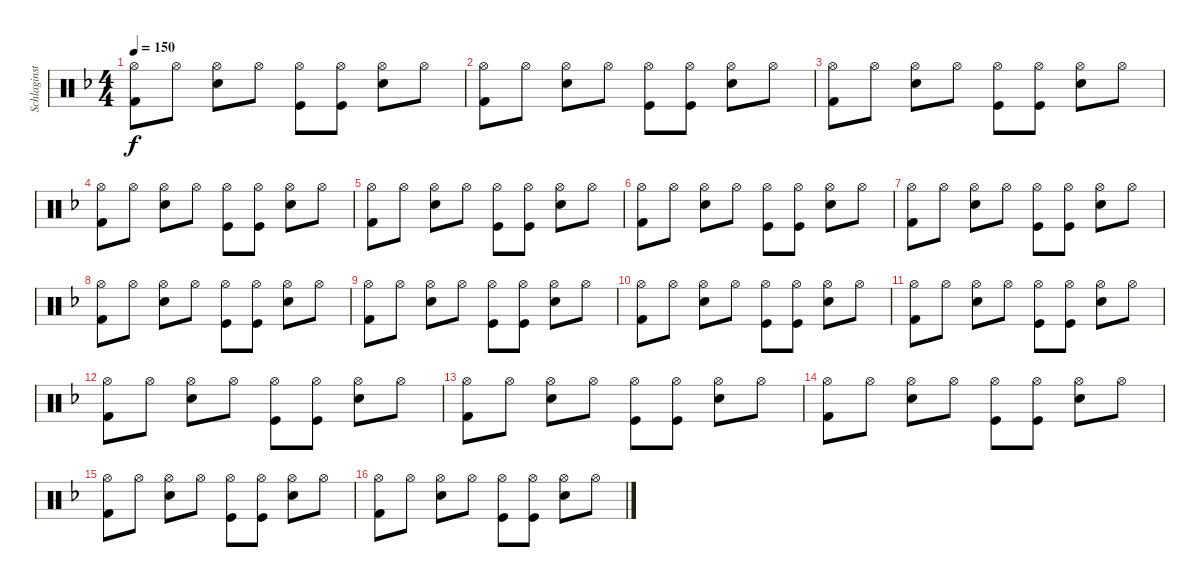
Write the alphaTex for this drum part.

\track ("Schlaginstrumente - Auswahl" "Schlaginst") {instrument percussion}
\staff {score}
\articulation defaults
\ts (4 4)
\tempo 150
\clef neutral
\ks f
("Hi-Hat (open)" "Kick (hit) 2").8{dy f} "Hi-Hat (open)".8 ("Hi-Hat (open)" "Snare (hit) 2").8 "Hi-Hat (open)".8 ("Hi-Hat (open)" "Kick (hit)").8 ("Kick (hit)" "Hi-Hat (open)").8 ("Hi-Hat (open)" "Snare (hit) 2").8 "Hi-Hat (open)".8 |
("Hi-Hat (open)" "Kick (hit) 2").8 "Hi-Hat (open)".8 ("Hi-Hat (open)" "Snare (hit) 2").8 "Hi-Hat (open)".8 ("Hi-Hat (open)" "Kick (hit)").8 ("Kick (hit)" "Hi-Hat (open)").8 ("Hi-Hat (open)" "Snare (hit) 2").8 "Hi-Hat (open)".8 |
("Hi-Hat (open)" "Kick (hit) 2").8 "Hi-Hat (open)".8 ("Hi-Hat (open)" "Snare (hit) 2").8 "Hi-Hat (open)".8 ("Hi-Hat (open)" "Kick (hit)").8 ("Kick (hit)" "Hi-Hat (open)").8 ("Hi-Hat (open)" "Snare (hit) 2").8 "Hi-Hat (open)".8 |
("Hi-Hat (open)" "Kick (hit) 2").8 "Hi-Hat (open)".8 ("Hi-Hat (open)" "Snare (hit) 2").8 "Hi-Hat (open)".8 ("Hi-Hat (open)" "Kick (hit)").8 ("Kick (hit)" "Hi-Hat (open)").8 ("Hi-Hat (open)" "Snare (hit) 2").8 "Hi-Hat (open)".8 |
("Hi-Hat (open)" "Kick (hit) 2").8 "Hi-Hat (open)".8 ("Hi-Hat (open)" "Snare (hit) 2").8 "Hi-Hat (open)".8 ("Hi-Hat (open)" "Kick (hit)").8 ("Kick (hit)" "Hi-Hat (open)").8 ("Hi-Hat (open)" "Snare (hit) 2").8 "Hi-Hat (open)".8 |
("Hi-Hat (open)" "Kick (hit) 2").8 "Hi-Hat (open)".8 ("Hi-Hat (open)" "Snare (hit) 2").8 "Hi-Hat (open)".8 ("Hi-Hat (open)" "Kick (hit)").8 ("Kick (hit)" "Hi-Hat (open)").8 ("Hi-Hat (open)" "Snare (hit) 2").8 "Hi-Hat (open)".8 |
("Hi-Hat (open)" "Kick (hit) 2").8 "Hi-Hat (open)".8 ("Hi-Hat (open)" "Snare (hit) 2").8 "Hi-Hat (open)".8 ("Hi-Hat (open)" "Kick (hit)").8 ("Kick (hit)" "Hi-Hat (open)").8 ("Hi-Hat (open)" "Snare (hit) 2").8 "Hi-Hat (open)".8 |
("Hi-Hat (open)" "Kick (hit) 2").8 "Hi-Hat (open)".8 ("Hi-Hat (open)" "Snare (hit) 2").8 "Hi-Hat (open)".8 ("Hi-Hat (open)" "Kick (hit)").8 ("Kick (hit)" "Hi-Hat (open)").8 ("Hi-Hat (open)" "Snare (hit) 2").8 "Hi-Hat (open)".8 |
("Hi-Hat (open)" "Kick (hit) 2").8 "Hi-Hat (open)".8 ("Hi-Hat (open)" "Snare (hit) 2").8 "Hi-Hat (open)".8 ("Hi-Hat (open)" "Kick (hit)").8 ("Kick (hit)" "Hi-Hat (open)").8 ("Hi-Hat (open)" "Snare (hit) 2").8 "Hi-Hat (open)".8 |
("Hi-Hat (open)" "Kick (hit) 2").8 "Hi-Hat (open)".8 ("Hi-Hat (open)" "Snare (hit) 2").8 "Hi-Hat (open)".8 ("Hi-Hat (open)" "Kick (hit)").8 ("Kick (hit)" "Hi-Hat (open)").8 ("Hi-Hat (open)" "Snare (hit) 2").8 "Hi-Hat (open)".8 |
("Hi-Hat (open)" "Kick (hit) 2").8 "Hi-Hat (open)".8 ("Hi-Hat (open)" "Snare (hit) 2").8 "Hi-Hat (open)".8 ("Hi-Hat (open)" "Kick (hit)").8 ("Kick (hit)" "Hi-Hat (open)").8 ("Hi-Hat (open)" "Snare (hit) 2").8 "Hi-Hat (open)".8 |
("Hi-Hat (open)" "Kick (hit) 2").8 "Hi-Hat (open)".8 ("Hi-Hat (open)" "Snare (hit) 2").8 "Hi-Hat (open)".8 ("Hi-Hat (open)" "Kick (hit)").8 ("Kick (hit)" "Hi-Hat (open)").8 ("Hi-Hat (open)" "Snare (hit) 2").8 "Hi-Hat (open)".8 |
("Hi-Hat (open)" "Kick (hit) 2").8 "Hi-Hat (open)".8 ("Hi-Hat (open)" "Snare (hit) 2").8 "Hi-Hat (open)".8 ("Hi-Hat (open)" "Kick (hit)").8 ("Kick (hit)" "Hi-Hat (open)").8 ("Hi-Hat (open)" "Snare (hit) 2").8 "Hi-Hat (open)".8 |
("Hi-Hat (open)" "Kick (hit) 2").8 "Hi-Hat (open)".8 ("Hi-Hat (open)" "Snare (hit) 2").8 "Hi-Hat (open)".8 ("Hi-Hat (open)" "Kick (hit)").8 ("Kick (hit)" "Hi-Hat (open)").8 ("Hi-Hat (open)" "Snare (hit) 2").8 "Hi-Hat (open)".8 |
("Hi-Hat (open)" "Kick (hit) 2").8 "Hi-Hat (open)".8 ("Hi-Hat (open)" "Snare (hit) 2").8 "Hi-Hat (open)".8 ("Hi-Hat (open)" "Kick (hit)").8 ("Kick (hit)" "Hi-Hat (open)").8 ("Hi-Hat (open)" "Snare (hit) 2").8 "Hi-Hat (open)".8 |
("Hi-Hat (open)" "Kick (hit) 2").8 "Hi-Hat (open)".8 ("Hi-Hat (open)" "Snare (hit) 2").8 "Hi-Hat (open)".8 ("Hi-Hat (open)" "Kick (hit)").8 ("Kick (hit)" "Hi-Hat (open)").8 ("Hi-Hat (open)" "Snare (hit) 2").8 "Hi-Hat (open)".8
